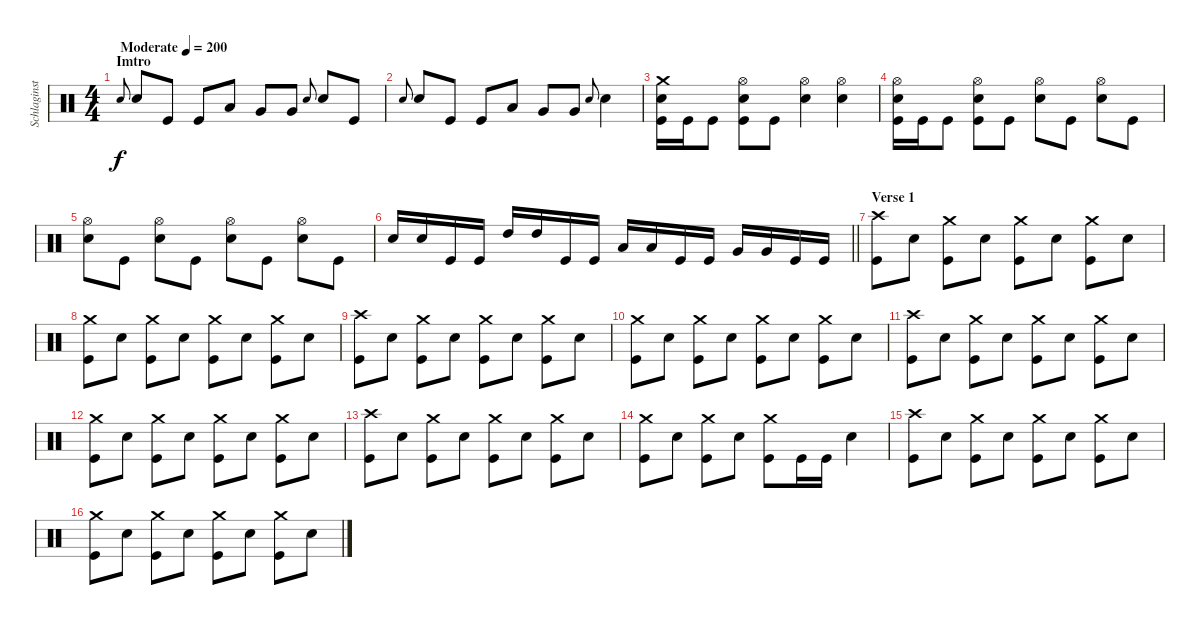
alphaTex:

\track ("Schlaginstrumente - Auswahl" "Schlaginst") {instrument percussion}
\staff {score}
\articulation defaults
\ts (4 4)
\section ("" "Imtro")
\tempo (200 "Moderate")
\clef neutral
\ks c "Electric Snare (hit)".8{gr onbeat dy f} "Electric Snare (hit)".8 "Kick (hit)".8 "Kick (hit)".8 "Low Tom (hit)".8 "Very Low Tom (hit)".8 "Very Low Tom (hit)".8 "Electric Snare (hit)".8{gr onbeat} "Electric Snare (hit)".8 "Kick (hit)".8
|
"Electric Snare (hit)".8{gr onbeat} "Electric Snare (hit)".8 "Kick (hit)".8 "Kick (hit)".8 "Low Tom (hit)".8 "Very Low Tom (hit)".8 "Very Low Tom (hit)".8 "Electric Snare (hit)".8{gr onbeat} "Electric Snare (hit)".4 |
("Crash medium (hit)" "Electric Snare (hit)" "Kick (hit)").16 "Kick (hit)".16 "Kick (hit)".8 ("Hi-Hat (open)" "Electric Snare (hit)" "Kick (hit)").8 "Kick (hit)".8 ("Hi-Hat (open)" "Electric Snare (hit)").4 ("Hi-Hat (open)" "Electric Snare (hit)").4 |
("Hi-Hat (open)" "Electric Snare (hit)" "Kick (hit)").16 "Kick (hit)".16 "Kick (hit)".8 ("Hi-Hat (open)" "Electric Snare (hit)" "Kick (hit)").8 "Kick (hit)".8 ("Hi-Hat (open)" "Electric Snare (hit)").8 "Kick (hit)".8 ("Hi-Hat (open)" "Electric Snare (hit)").8 "Kick (hit)".8 |
("Hi-Hat (open)" "Electric Snare (hit)").8 "Kick (hit)".8 ("Hi-Hat (open)" "Electric Snare (hit)").8 "Kick (hit)".8 ("Hi-Hat (open)" "Electric Snare (hit)").8 "Kick (hit)".8 ("Hi-Hat (open)" "Electric Snare (hit)").8 "Kick (hit)".8 |
\barLineRight lightlight "Electric Snare (hit)".16 "Electric Snare (hit)".16 "Kick (hit)".16 "Kick (hit)".16 "High Tom (hit)".16 "High Tom (hit)".16 "Kick (hit)".16 "Kick (hit)".16 "Low Tom (hit)".16 "Low Tom (hit)".16 "Kick (hit)".16 "Kick (hit)".16 "Very Low Tom (hit)".16 "Very Low Tom (hit)".16 "Kick (hit)".16 "Kick (hit)".16
|
\section ("" "Verse 1")
("Crash high (hit)" "Kick (hit)").8 "Electric Snare (hit)".8 ("Crash medium (hit)" "Kick (hit)").8 "Electric Snare (hit)".8 ("Crash medium (hit)" "Kick (hit)").8 "Electric Snare (hit)".8 ("Crash medium (hit)" "Kick (hit)").8 "Electric Snare (hit)".8 |
("Crash medium (hit)" "Kick (hit)").8 "Electric Snare (hit)".8 ("Crash medium (hit)" "Kick (hit)").8 "Electric Snare (hit)".8 ("Crash medium (hit)" "Kick (hit)").8 "Electric Snare (hit)".8 ("Crash medium (hit)" "Kick (hit)").8 "Electric Snare (hit)".8 |
("Crash high (hit)" "Kick (hit)").8 "Electric Snare (hit)".8 ("Crash medium (hit)" "Kick (hit)").8 "Electric Snare (hit)".8 ("Crash medium (hit)" "Kick (hit)").8 "Electric Snare (hit)".8 ("Crash medium (hit)" "Kick (hit)").8 "Electric Snare (hit)".8 |
("Crash medium (hit)" "Kick (hit)").8 "Electric Snare (hit)".8 ("Crash medium (hit)" "Kick (hit)").8 "Electric Snare (hit)".8 ("Crash medium (hit)" "Kick (hit)").8 "Electric Snare (hit)".8 ("Crash medium (hit)" "Kick (hit)").8 "Electric Snare (hit)".8 |
("Crash high (hit)" "Kick (hit)").8 "Electric Snare (hit)".8 ("Crash medium (hit)" "Kick (hit)").8 "Electric Snare (hit)".8 ("Crash medium (hit)" "Kick (hit)").8 "Electric Snare (hit)".8 ("Crash medium (hit)" "Kick (hit)").8 "Electric Snare (hit)".8 |
("Crash medium (hit)" "Kick (hit)").8 "Electric Snare (hit)".8 ("Crash medium (hit)" "Kick (hit)").8 "Electric Snare (hit)".8 ("Crash medium (hit)" "Kick (hit)").8 "Electric Snare (hit)".8 ("Crash medium (hit)" "Kick (hit)").8 "Electric Snare (hit)".8 |
("Crash high (hit)" "Kick (hit)").8 "Electric Snare (hit)".8 ("Crash medium (hit)" "Kick (hit)").8 "Electric Snare (hit)".8 ("Crash medium (hit)" "Kick (hit)").8 "Electric Snare (hit)".8 ("Crash medium (hit)" "Kick (hit)").8 "Electric Snare (hit)".8 |
("Crash medium (hit)" "Kick (hit)").8 "Electric Snare (hit)".8 ("Crash medium (hit)" "Kick (hit)").8 "Electric Snare (hit)".8 ("Crash medium (hit)" "Kick (hit)").8 "Kick (hit)".16 "Kick (hit)".16 "Electric Snare (hit)".4 |
("Crash high (hit)" "Kick (hit)").8 "Electric Snare (hit)".8 ("Crash medium (hit)" "Kick (hit)").8 "Electric Snare (hit)".8 ("Crash medium (hit)" "Kick (hit)").8 "Electric Snare (hit)".8 ("Crash medium (hit)" "Kick (hit)").8 "Electric Snare (hit)".8 |
("Crash medium (hit)" "Kick (hit)").8 "Electric Snare (hit)".8 ("Crash medium (hit)" "Kick (hit)").8 "Electric Snare (hit)".8 ("Crash medium (hit)" "Kick (hit)").8 "Electric Snare (hit)".8 ("Crash medium (hit)" "Kick (hit)").8 "Electric Snare (hit)".8
